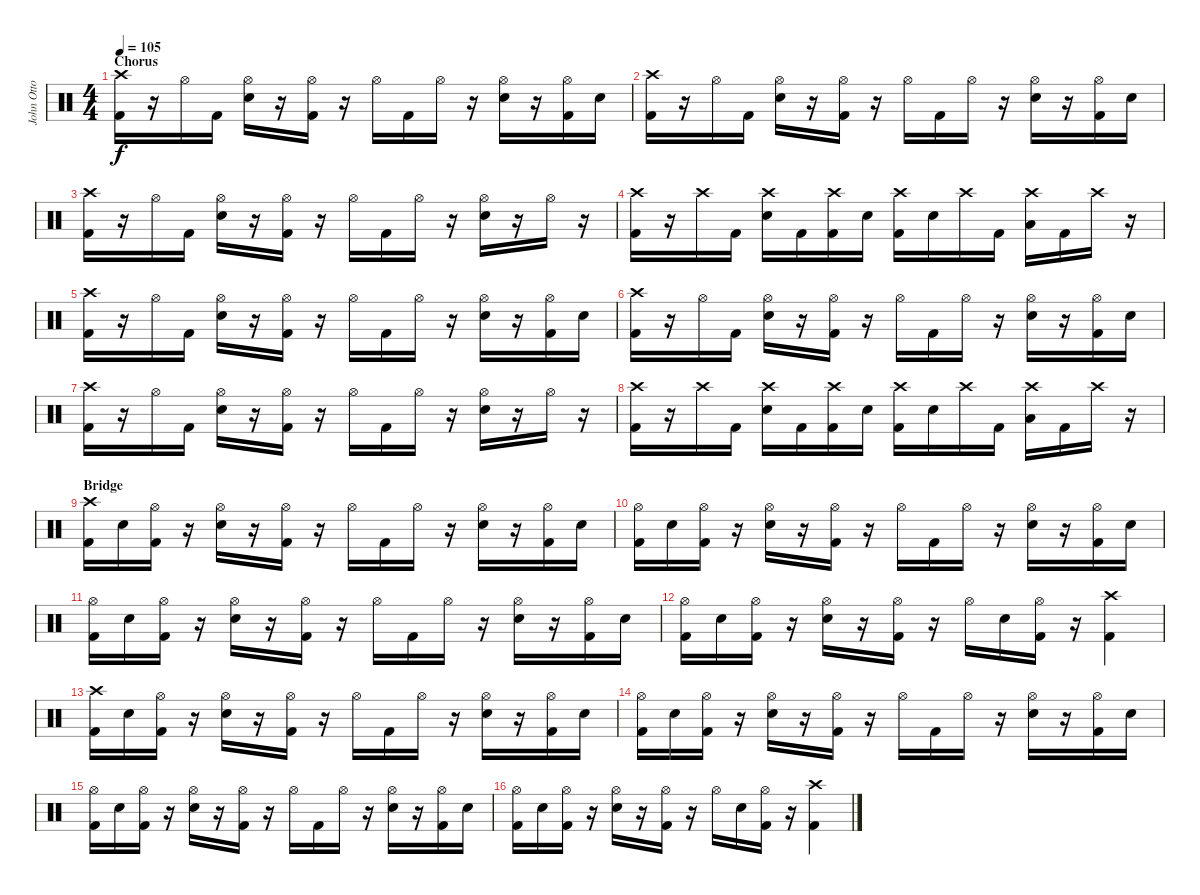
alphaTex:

\track ("John Otto - Drums" "John Otto ") {instrument percussion}
\staff {score}
\articulation defaults
\ts (4 4)
\section ("" "Chorus")
\tempo 105
\clef neutral
\ks c
("Crash high (hit)" "Kick (hit) 2").16{dy f} r.16 "Hi-Hat (open)".16 "Kick (hit) 2".16 ("Hi-Hat (open)" "Electric Snare (hit)").16 r.16 ("Hi-Hat (open)" "Kick (hit) 2").16 r.16 "Hi-Hat (open)".16 "Kick (hit) 2".16 "Hi-Hat (open)".16 r.16 ("Hi-Hat (open)" "Electric Snare (hit)").16 r.16 ("Hi-Hat (open)" "Kick (hit) 2").16 "Electric Snare (hit)".16 |
("Crash high (hit)" "Kick (hit) 2").16 r.16 "Hi-Hat (open)".16 "Kick (hit) 2".16 ("Hi-Hat (open)" "Electric Snare (hit)").16 r.16 ("Hi-Hat (open)" "Kick (hit) 2").16 r.16 "Hi-Hat (open)".16 "Kick (hit) 2".16 "Hi-Hat (open)".16 r.16 ("Hi-Hat (open)" "Electric Snare (hit)").16 r.16 ("Hi-Hat (open)" "Kick (hit) 2").16 "Electric Snare (hit)".16 |
("Crash high (hit)" "Kick (hit) 2").16 r.16 "Hi-Hat (open)".16 "Kick (hit) 2".16 ("Hi-Hat (open)" "Electric Snare (hit)").16 r.16 ("Hi-Hat (open)" "Kick (hit) 2").16 r.16 "Hi-Hat (open)".16 "Kick (hit) 2".16 "Hi-Hat (open)".16 r.16 ("Hi-Hat (open)" "Electric Snare (hit)").16 r.16 "Hi-Hat (open)".16 r.16 |
("Crash high (hit)" "Kick (hit) 2").16 r.16 "Crash high (hit)".16 "Kick (hit) 2".16 ("Crash high (hit)" "Electric Snare (hit)").16 "Kick (hit) 2".16 ("Crash high (hit)" "Kick (hit) 2").16 "Electric Snare (hit)".16 ("Crash high (hit)" "Kick (hit) 2").16 "Electric Snare (hit)".16 "Crash high (hit)".16 "Kick (hit) 2".16 ("Crash high (hit)" "Low Tom (hit)").16 "Kick (hit) 2".16 "Crash high (hit)".16 r.16 |
("Crash high (hit)" "Kick (hit) 2").16 r.16 "Hi-Hat (open)".16 "Kick (hit) 2".16 ("Hi-Hat (open)" "Electric Snare (hit)").16 r.16 ("Hi-Hat (open)" "Kick (hit) 2").16 r.16 "Hi-Hat (open)".16 "Kick (hit) 2".16 "Hi-Hat (open)".16 r.16 ("Hi-Hat (open)" "Electric Snare (hit)").16 r.16 ("Hi-Hat (open)" "Kick (hit) 2").16 "Electric Snare (hit)".16 |
("Crash high (hit)" "Kick (hit) 2").16 r.16 "Hi-Hat (open)".16 "Kick (hit) 2".16 ("Hi-Hat (open)" "Electric Snare (hit)").16 r.16 ("Hi-Hat (open)" "Kick (hit) 2").16 r.16 "Hi-Hat (open)".16 "Kick (hit) 2".16 "Hi-Hat (open)".16 r.16 ("Hi-Hat (open)" "Electric Snare (hit)").16 r.16 ("Hi-Hat (open)" "Kick (hit) 2").16 "Electric Snare (hit)".16 |
("Crash high (hit)" "Kick (hit) 2").16 r.16 "Hi-Hat (open)".16 "Kick (hit) 2".16 ("Hi-Hat (open)" "Electric Snare (hit)").16 r.16 ("Hi-Hat (open)" "Kick (hit) 2").16 r.16 "Hi-Hat (open)".16 "Kick (hit) 2".16 "Hi-Hat (open)".16 r.16 ("Hi-Hat (open)" "Electric Snare (hit)").16 r.16 "Hi-Hat (open)".16 r.16 |
("Crash high (hit)" "Kick (hit) 2").16 r.16 "Crash high (hit)".16 "Kick (hit) 2".16 ("Crash high (hit)" "Electric Snare (hit)").16 "Kick (hit) 2".16 ("Crash high (hit)" "Kick (hit) 2").16 "Electric Snare (hit)".16 ("Crash high (hit)" "Kick (hit) 2").16 "Electric Snare (hit)".16 "Crash high (hit)".16 "Kick (hit) 2".16 ("Crash high (hit)" "Low Tom (hit)").16 "Kick (hit) 2".16 "Crash high (hit)".16 r.16 |
\section ("" "Bridge")
("Crash high (hit)" "Kick (hit) 2").16 "Electric Snare (hit)".16 ("Hi-Hat (open)" "Kick (hit) 2").16 r.16 ("Hi-Hat (open)" "Electric Snare (hit)").16 r.16 ("Hi-Hat (open)" "Kick (hit) 2").16 r.16 "Hi-Hat (open)".16 "Kick (hit) 2".16 "Hi-Hat (open)".16 r.16 ("Hi-Hat (open)" "Electric Snare (hit)").16 r.16 ("Hi-Hat (open)" "Kick (hit) 2").16 "Electric Snare (hit)".16 |
("Hi-Hat (open)" "Kick (hit) 2").16 "Electric Snare (hit)".16 ("Hi-Hat (open)" "Kick (hit) 2").16 r.16 ("Hi-Hat (open)" "Electric Snare (hit)").16 r.16 ("Hi-Hat (open)" "Kick (hit) 2").16 r.16 "Hi-Hat (open)".16 "Kick (hit) 2".16 "Hi-Hat (open)".16 r.16 ("Hi-Hat (open)" "Electric Snare (hit)").16 r.16 ("Hi-Hat (open)" "Kick (hit) 2").16 "Electric Snare (hit)".16 |
("Hi-Hat (open)" "Kick (hit) 2").16 "Electric Snare (hit)".16 ("Hi-Hat (open)" "Kick (hit) 2").16 r.16 ("Hi-Hat (open)" "Electric Snare (hit)").16 r.16 ("Hi-Hat (open)" "Kick (hit) 2").16 r.16 "Hi-Hat (open)".16 "Kick (hit) 2".16 "Hi-Hat (open)".16 r.16 ("Hi-Hat (open)" "Electric Snare (hit)").16 r.16 ("Hi-Hat (open)" "Kick (hit) 2").16 "Electric Snare (hit)".16 |
("Hi-Hat (open)" "Kick (hit) 2").16 "Electric Snare (hit)".16 ("Hi-Hat (open)" "Kick (hit) 2").16 r.16 ("Hi-Hat (open)" "Electric Snare (hit)").16 r.16 ("Hi-Hat (open)" "Kick (hit) 2").16 r.16 "Hi-Hat (open)".16 "Electric Snare (hit)".16 ("Hi-Hat (open)" "Kick (hit) 2").16 r.16 ("Crash high (hit)" "Kick (hit) 2").4 |
("Crash high (hit)" "Kick (hit) 2").16 "Electric Snare (hit)".16 ("Hi-Hat (open)" "Kick (hit) 2").16 r.16 ("Hi-Hat (open)" "Electric Snare (hit)").16 r.16 ("Hi-Hat (open)" "Kick (hit) 2").16 r.16 "Hi-Hat (open)".16 "Kick (hit) 2".16 "Hi-Hat (open)".16 r.16 ("Hi-Hat (open)" "Electric Snare (hit)").16 r.16 ("Hi-Hat (open)" "Kick (hit) 2").16 "Electric Snare (hit)".16 |
("Hi-Hat (open)" "Kick (hit) 2").16 "Electric Snare (hit)".16 ("Hi-Hat (open)" "Kick (hit) 2").16 r.16 ("Hi-Hat (open)" "Electric Snare (hit)").16 r.16 ("Hi-Hat (open)" "Kick (hit) 2").16 r.16 "Hi-Hat (open)".16 "Kick (hit) 2".16 "Hi-Hat (open)".16 r.16 ("Hi-Hat (open)" "Electric Snare (hit)").16 r.16 ("Hi-Hat (open)" "Kick (hit) 2").16 "Electric Snare (hit)".16 |
("Hi-Hat (open)" "Kick (hit) 2").16 "Electric Snare (hit)".16 ("Hi-Hat (open)" "Kick (hit) 2").16 r.16 ("Hi-Hat (open)" "Electric Snare (hit)").16 r.16 ("Hi-Hat (open)" "Kick (hit) 2").16 r.16 "Hi-Hat (open)".16 "Kick (hit) 2".16 "Hi-Hat (open)".16 r.16 ("Hi-Hat (open)" "Electric Snare (hit)").16 r.16 ("Hi-Hat (open)" "Kick (hit) 2").16 "Electric Snare (hit)".16 |
("Hi-Hat (open)" "Kick (hit) 2").16 "Electric Snare (hit)".16 ("Hi-Hat (open)" "Kick (hit) 2").16 r.16 ("Hi-Hat (open)" "Electric Snare (hit)").16 r.16 ("Hi-Hat (open)" "Kick (hit) 2").16 r.16 "Hi-Hat (open)".16 "Electric Snare (hit)".16 ("Hi-Hat (open)" "Kick (hit) 2").16 r.16 ("Crash high (hit)" "Kick (hit) 2").4
